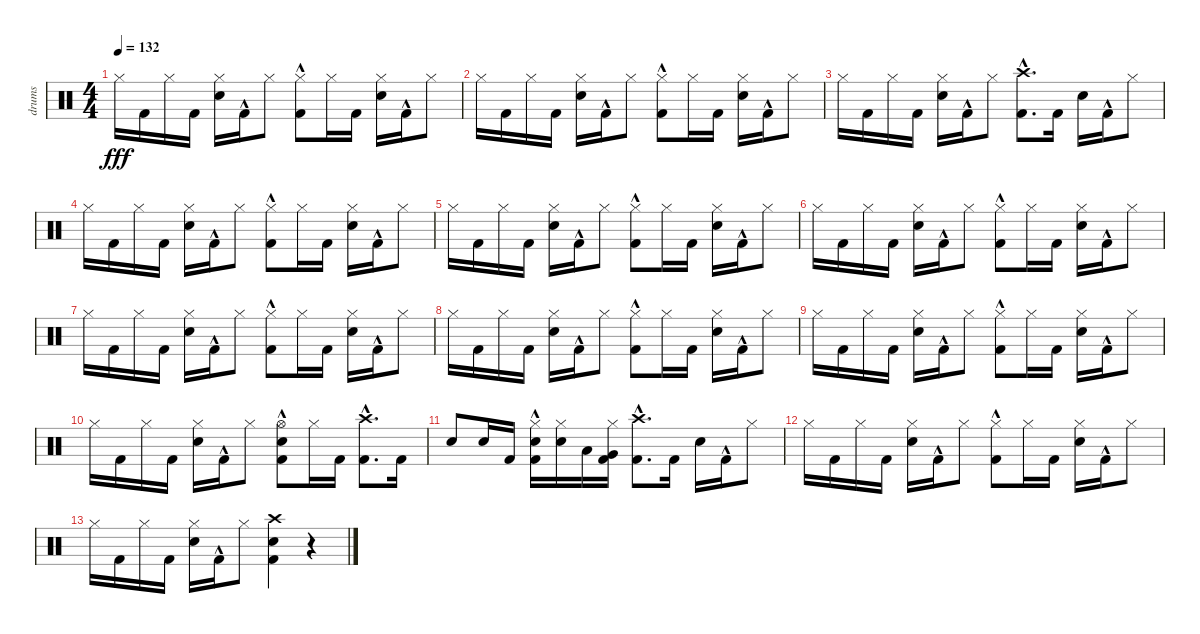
\track ("drums" "drums") {instrument percussion}
\staff {score}
\articulation defaults
\ts (4 4)
\tempo 132
\clef neutral
\ks c "Hi-Hat (closed)".16{dy fff} "Kick (hit) 2".16 "Hi-Hat (closed)".16 "Kick (hit) 2".16
("Snare (hit) 2" "Hi-Hat (closed)").16 "Kick (hit) 2"{hac}.16 "Hi-Hat (closed)".8 ("Kick (hit) 2"{hac} "Hi-Hat (closed)").8 "Hi-Hat (closed)".16 "Kick (hit) 2".16 ("Snare (hit) 2" "Hi-Hat (closed)").16 "Kick (hit) 2"{hac}.16 "Hi-Hat (closed)".8 |
"Hi-Hat (closed)".16 "Kick (hit) 2".16 "Hi-Hat (closed)".16 "Kick (hit) 2".16 ("Snare (hit) 2" "Hi-Hat (closed)").16 "Kick (hit) 2"{hac}.16 "Hi-Hat (closed)".8 ("Kick (hit) 2"{hac} "Hi-Hat (closed)").8 "Hi-Hat (closed)".16 "Kick (hit) 2".16 ("Snare (hit) 2" "Hi-Hat (closed)").16 "Kick (hit) 2"{hac}.16 "Hi-Hat (closed)".8 |
"Hi-Hat (closed)".16 "Kick (hit) 2".16 "Hi-Hat (closed)".16 "Kick (hit) 2".16 ("Snare (hit) 2" "Hi-Hat (closed)").16 "Kick (hit) 2"{hac}.16 "Hi-Hat (closed)".8 ("Kick (hit) 2"{hac} "Crash high (hit)").8{d} "Kick (hit) 2".16 "Snare (hit) 2".16 "Kick (hit) 2"{hac}.16 "Hi-Hat (closed)".8 |
"Hi-Hat (closed)".16 "Kick (hit) 2".16 "Hi-Hat (closed)".16 "Kick (hit) 2".16 ("Snare (hit) 2" "Hi-Hat (closed)").16 "Kick (hit) 2"{hac}.16 "Hi-Hat (closed)".8 ("Kick (hit) 2"{hac} "Hi-Hat (closed)").8 "Hi-Hat (closed)".16 "Kick (hit) 2".16 ("Snare (hit) 2" "Hi-Hat (closed)").16 "Kick (hit) 2"{hac}.16 "Hi-Hat (closed)".8 |
"Hi-Hat (closed)".16 "Kick (hit) 2".16 "Hi-Hat (closed)".16 "Kick (hit) 2".16 ("Snare (hit) 2" "Hi-Hat (closed)").16 "Kick (hit) 2"{hac}.16 "Hi-Hat (closed)".8 ("Kick (hit) 2"{hac} "Hi-Hat (closed)").8 "Hi-Hat (closed)".16 "Kick (hit) 2".16 ("Snare (hit) 2" "Hi-Hat (closed)").16 "Kick (hit) 2"{hac}.16 "Hi-Hat (closed)".8 |
"Hi-Hat (closed)".16 "Kick (hit) 2".16 "Hi-Hat (closed)".16 "Kick (hit) 2".16 ("Snare (hit) 2" "Hi-Hat (closed)").16 "Kick (hit) 2"{hac}.16 "Hi-Hat (closed)".8 ("Kick (hit) 2"{hac} "Hi-Hat (closed)").8 "Hi-Hat (closed)".16 "Kick (hit) 2".16 ("Snare (hit) 2" "Hi-Hat (closed)").16 "Kick (hit) 2"{hac}.16 "Hi-Hat (closed)".8 |
"Hi-Hat (closed)".16 "Kick (hit) 2".16 "Hi-Hat (closed)".16 "Kick (hit) 2".16 ("Snare (hit) 2" "Hi-Hat (closed)").16 "Kick (hit) 2"{hac}.16 "Hi-Hat (closed)".8 ("Kick (hit) 2"{hac} "Hi-Hat (closed)").8 "Hi-Hat (closed)".16 "Kick (hit) 2".16 ("Snare (hit) 2" "Hi-Hat (closed)").16 "Kick (hit) 2"{hac}.16 "Hi-Hat (closed)".8 |
"Hi-Hat (closed)".16 "Kick (hit) 2".16 "Hi-Hat (closed)".16 "Kick (hit) 2".16 ("Snare (hit) 2" "Hi-Hat (closed)").16 "Kick (hit) 2"{hac}.16 "Hi-Hat (closed)".8 ("Kick (hit) 2"{hac} "Hi-Hat (closed)").8 "Hi-Hat (closed)".16 "Kick (hit) 2".16 ("Snare (hit) 2" "Hi-Hat (closed)").16 "Kick (hit) 2"{hac}.16 "Hi-Hat (closed)".8 |
"Hi-Hat (closed)".16 "Kick (hit) 2".16 "Hi-Hat (closed)".16 "Kick (hit) 2".16 ("Snare (hit) 2" "Hi-Hat (closed)").16 "Kick (hit) 2"{hac}.16 "Hi-Hat (closed)".8 ("Kick (hit) 2"{hac} "Hi-Hat (closed)").8 "Hi-Hat (closed)".16{volume 3} "Kick (hit) 2".16 ("Snare (hit) 2" "Hi-Hat (closed)").16 "Kick (hit) 2"{hac}.16 "Hi-Hat (closed)".8 |
"Hi-Hat (closed)".16 "Kick (hit) 2".16 "Hi-Hat (closed)".16 "Kick (hit) 2".16 ("Snare (hit) 2" "Hi-Hat (closed)").16 "Kick (hit) 2"{hac}.16 "Hi-Hat (closed)".8 ("Kick (hit) 2"{hac} "Snare (hit) 2" "Hi-Hat (open)").8 "Hi-Hat (closed)".16 "Kick (hit) 2".16 ("Kick (hit) 2"{hac} "Crash high (hit)").8{d} "Kick (hit) 2".16 |
"Snare (hit) 2".8 "Snare (hit) 2".16 "Kick (hit) 2".16 ("Kick (hit) 2"{hac} "Snare (hit) 2" "Hi-Hat (closed)").16 ("Snare (hit) 2" "Hi-Hat (closed)").16 "Low Tom (hit)".16 ("Kick (hit) 2" "Very Low Tom (hit)" "Hi-Hat (closed)").16 ("Kick (hit) 2"{hac} "Crash high (hit)").8{d} "Kick (hit) 2".16 "Snare (hit) 2".16 "Kick (hit) 2"{hac}.16 "Hi-Hat (closed)".8 |
"Hi-Hat (closed)".16 "Kick (hit) 2".16 "Hi-Hat (closed)".16 "Kick (hit) 2".16 ("Snare (hit) 2" "Hi-Hat (closed)").16 "Kick (hit) 2"{hac}.16 "Hi-Hat (closed)".8 ("Kick (hit) 2"{hac} "Hi-Hat (closed)").8 "Hi-Hat (closed)".16 "Kick (hit) 2".16 ("Snare (hit) 2" "Hi-Hat (closed)").16 "Kick (hit) 2"{hac}.16 "Hi-Hat (closed)".8 |
"Hi-Hat (closed)".16 "Kick (hit) 2".16 "Hi-Hat (closed)".16 "Kick (hit) 2".16 ("Snare (hit) 2" "Hi-Hat (closed)").16 "Kick (hit) 2"{hac}.16 "Hi-Hat (closed)".8 ("Kick (hit) 2" "Snare (hit) 2" "Crash high (hit)").4 r.4
